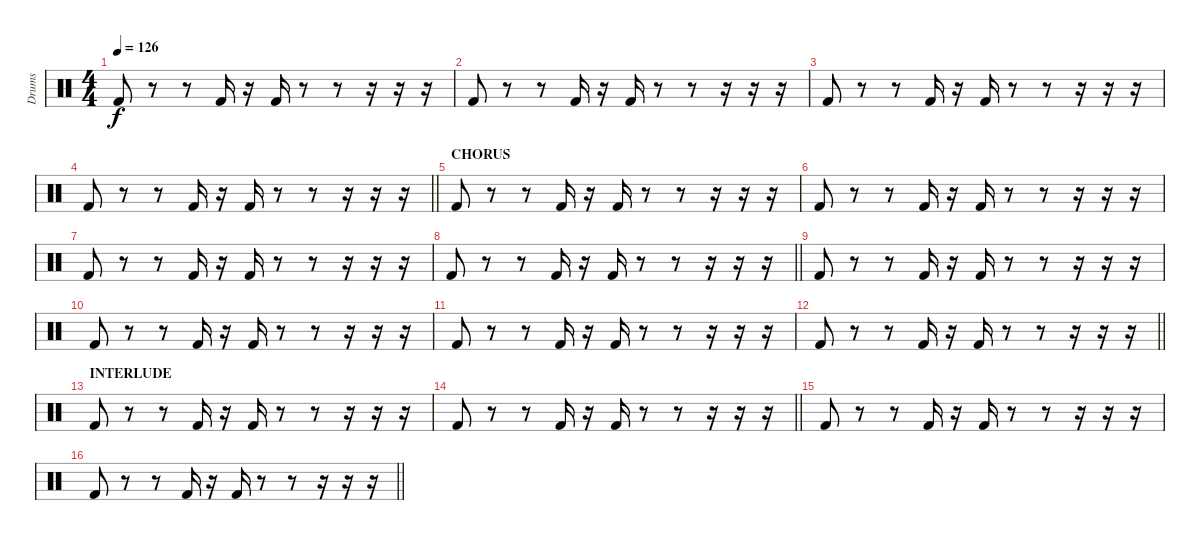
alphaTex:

\track ("Drums" "Drums") {instrument percussion}
\staff {score}
\articulation defaults
\ts (4 4)
\tempo 126
\clef neutral
\ks c "Kick (hit) 2".8{dy f}
r.8 r.8 "Kick (hit) 2".16 r.16 "Kick (hit) 2".16 r.8 r.8 r.16 r.16 r.16 |
"Kick (hit) 2".8 r.8 r.8 "Kick (hit) 2".16 r.16 "Kick (hit) 2".16 r.8 r.8 r.16 r.16 r.16 |
"Kick (hit) 2".8 r.8 r.8 "Kick (hit) 2".16 r.16 "Kick (hit) 2".16 r.8 r.8 r.16 r.16 r.16 |
\barLineRight lightlight "Kick (hit) 2".8
r.8 r.8 "Kick (hit) 2".16 r.16 "Kick (hit) 2".16 r.8 r.8 r.16 r.16 r.16 |
\section ("" "CHORUS")
"Kick (hit) 2".8 r.8 r.8 "Kick (hit) 2".16 r.16 "Kick (hit) 2".16 r.8 r.8 r.16 r.16 r.16 |
"Kick (hit) 2".8 r.8 r.8 "Kick (hit) 2".16 r.16 "Kick (hit) 2".16 r.8 r.8 r.16 r.16 r.16 |
"Kick (hit) 2".8 r.8 r.8 "Kick (hit) 2".16 r.16 "Kick (hit) 2".16 r.8 r.8 r.16 r.16 r.16 |
\barLineRight lightlight "Kick (hit) 2".8
r.8 r.8 "Kick (hit) 2".16 r.16 "Kick (hit) 2".16 r.8 r.8 r.16 r.16 r.16 |
"Kick (hit) 2".8 r.8 r.8 "Kick (hit) 2".16 r.16 "Kick (hit) 2".16 r.8 r.8 r.16 r.16 r.16 |
"Kick (hit) 2".8 r.8 r.8 "Kick (hit) 2".16 r.16 "Kick (hit) 2".16 r.8 r.8 r.16 r.16 r.16 |
"Kick (hit) 2".8 r.8 r.8 "Kick (hit) 2".16 r.16 "Kick (hit) 2".16 r.8 r.8 r.16 r.16 r.16 |
\barLineRight lightlight "Kick (hit) 2".8
r.8 r.8 "Kick (hit) 2".16 r.16 "Kick (hit) 2".16 r.8 r.8 r.16 r.16 r.16 |
\section ("" "INTERLUDE")
"Kick (hit) 2".8 r.8 r.8 "Kick (hit) 2".16 r.16 "Kick (hit) 2".16 r.8 r.8 r.16 r.16 r.16 |
\barLineRight lightlight "Kick (hit) 2".8
r.8 r.8 "Kick (hit) 2".16 r.16 "Kick (hit) 2".16 r.8 r.8 r.16 r.16 r.16 |
"Kick (hit) 2".8 r.8 r.8 "Kick (hit) 2".16 r.16 "Kick (hit) 2".16 r.8 r.8 r.16 r.16 r.16 |
\barLineRight lightlight "Kick (hit) 2".8
r.8 r.8 "Kick (hit) 2".16 r.16 "Kick (hit) 2".16 r.8 r.8 r.16 r.16 r.16
